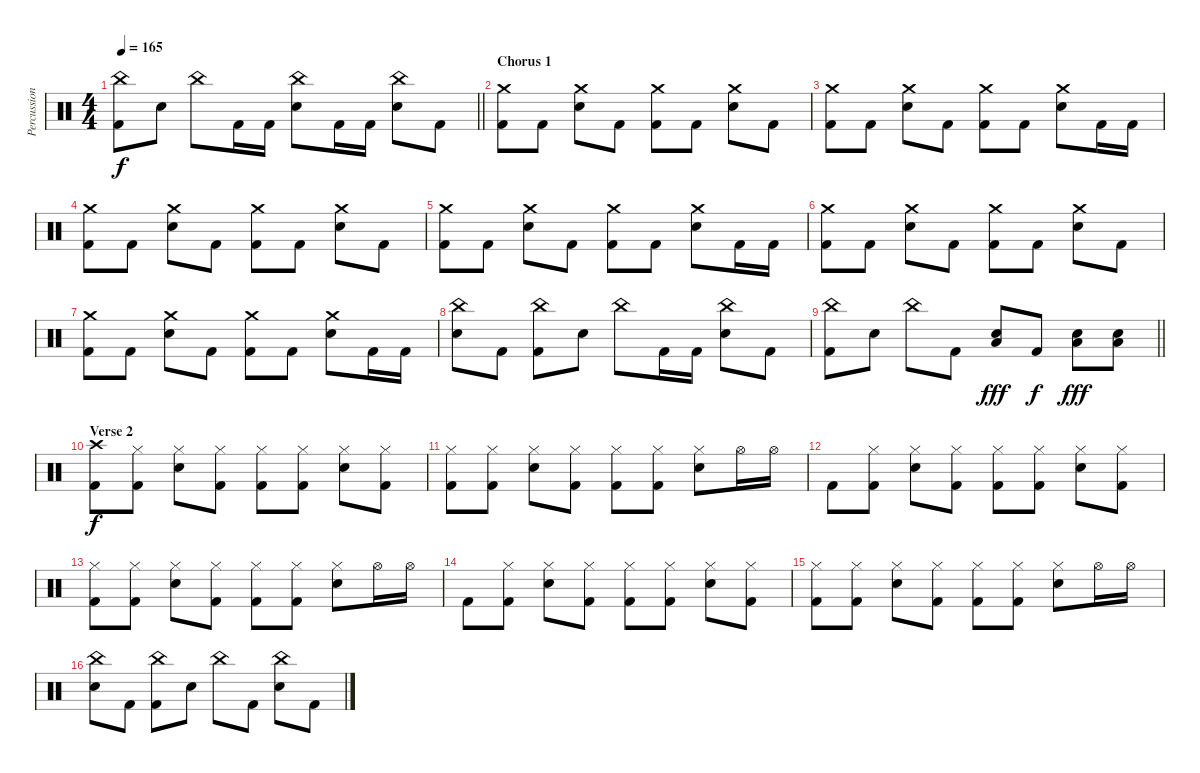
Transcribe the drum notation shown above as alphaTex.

\track ("Percussions" "Percussion") {instrument percussion}
\staff
\articulation defaults
\ts (4 4)
\tempo 165
\clef neutral
\barLineRight lightlight
\ks c
("China (hit)" "Kick (hit) 2").8{dy f} "Electric Snare (hit)".8 "China (hit)".8 "Kick (hit) 2".16 "Kick (hit) 2".16 ("China (hit)" "Electric Snare (hit)").8 "Kick (hit) 2".16 "Kick (hit) 2".16 ("China (hit)" "Electric Snare (hit)").8 "Kick (hit) 2".8 |
\section ("" "Chorus 1")
("Crash medium (hit)" "Kick (hit) 2").8 "Kick (hit) 2".8 ("Crash medium (hit)" "Electric Snare (hit)").8 "Kick (hit) 2".8 ("Crash medium (hit)" "Kick (hit) 2").8 "Kick (hit) 2".8 ("Crash medium (hit)" "Electric Snare (hit)").8 "Kick (hit) 2".8 |
("Crash medium (hit)" "Kick (hit) 2").8 "Kick (hit) 2".8 ("Crash medium (hit)" "Electric Snare (hit)").8 "Kick (hit) 2".8 ("Crash medium (hit)" "Kick (hit) 2").8 "Kick (hit) 2".8 ("Crash medium (hit)" "Electric Snare (hit)").8 "Kick (hit) 2".16 "Kick (hit) 2".16 |
("Crash medium (hit)" "Kick (hit) 2").8 "Kick (hit) 2".8 ("Crash medium (hit)" "Electric Snare (hit)").8 "Kick (hit) 2".8 ("Crash medium (hit)" "Kick (hit) 2").8 "Kick (hit) 2".8 ("Crash medium (hit)" "Electric Snare (hit)").8 "Kick (hit) 2".8 |
("Crash medium (hit)" "Kick (hit) 2").8 "Kick (hit) 2".8 ("Crash medium (hit)" "Electric Snare (hit)").8 "Kick (hit) 2".8 ("Crash medium (hit)" "Kick (hit) 2").8 "Kick (hit) 2".8 ("Crash medium (hit)" "Electric Snare (hit)").8 "Kick (hit) 2".16 "Kick (hit) 2".16 |
("Crash medium (hit)" "Kick (hit) 2").8 "Kick (hit) 2".8 ("Crash medium (hit)" "Electric Snare (hit)").8 "Kick (hit) 2".8 ("Crash medium (hit)" "Kick (hit) 2").8 "Kick (hit) 2".8 ("Crash medium (hit)" "Electric Snare (hit)").8 "Kick (hit) 2".8 |
("Crash medium (hit)" "Kick (hit) 2").8 "Kick (hit) 2".8 ("Crash medium (hit)" "Electric Snare (hit)").8 "Kick (hit) 2".8 ("Crash medium (hit)" "Kick (hit) 2").8 "Kick (hit) 2".8 ("Crash medium (hit)" "Electric Snare (hit)").8 "Kick (hit) 2".16 "Kick (hit) 2".16 |
("China (hit)" "Electric Snare (hit)").8 "Kick (hit) 2".8 ("China (hit)" "Kick (hit) 2").8 "Electric Snare (hit)".8 "China (hit)".8 "Kick (hit) 2".16 "Kick (hit) 2".16 ("China (hit)" "Electric Snare (hit)").8 "Kick (hit) 2".8 |
\barLineRight lightlight
("China (hit)" "Kick (hit) 2").8 "Electric Snare (hit)".8 "China (hit)".8 "Kick (hit) 2".8 ("Electric Snare (hit)" "Low Floor Tom (hit)").8{dy fff} "Kick (hit) 2".8{dy f} ("Electric Snare (hit)" "Low Floor Tom (hit)").8{dy fff} ("Electric Snare (hit)" "Low Floor Tom (hit)").8 |
\section ("" "Verse 2")
("Crash high (hit)" "Kick (hit) 2").8{dy f} ("Hi-Hat (closed)" "Kick (hit) 2").8 ("Hi-Hat (closed)" "Electric Snare (hit)").8 ("Hi-Hat (closed)" "Kick (hit) 2").8 ("Hi-Hat (closed)" "Kick (hit) 2").8 ("Hi-Hat (closed)" "Kick (hit) 2").8 ("Hi-Hat (closed)" "Electric Snare (hit)").8 ("Hi-Hat (closed)" "Kick (hit) 2").8 |
("Hi-Hat (closed)" "Kick (hit) 2").8 ("Hi-Hat (closed)" "Kick (hit) 2").8 ("Hi-Hat (closed)" "Electric Snare (hit)").8 ("Hi-Hat (closed)" "Kick (hit) 2").8 ("Hi-Hat (closed)" "Kick (hit) 2").8 ("Hi-Hat (closed)" "Kick (hit) 2").8 ("Hi-Hat (closed)" "Electric Snare (hit)").8 "Hi-Hat (open)".16 "Hi-Hat (open)".16 |
"Kick (hit) 2".8 ("Hi-Hat (closed)" "Kick (hit) 2").8 ("Hi-Hat (closed)" "Electric Snare (hit)").8 ("Hi-Hat (closed)" "Kick (hit) 2").8 ("Hi-Hat (closed)" "Kick (hit) 2").8 ("Hi-Hat (closed)" "Kick (hit) 2").8 ("Hi-Hat (closed)" "Electric Snare (hit)").8 ("Hi-Hat (closed)" "Kick (hit) 2").8 |
("Hi-Hat (closed)" "Kick (hit) 2").8 ("Hi-Hat (closed)" "Kick (hit) 2").8 ("Hi-Hat (closed)" "Electric Snare (hit)").8 ("Hi-Hat (closed)" "Kick (hit) 2").8 ("Hi-Hat (closed)" "Kick (hit) 2").8 ("Hi-Hat (closed)" "Kick (hit) 2").8 ("Hi-Hat (closed)" "Electric Snare (hit)").8 "Hi-Hat (open)".16 "Hi-Hat (open)".16 |
"Kick (hit) 2".8 ("Hi-Hat (closed)" "Kick (hit) 2").8 ("Hi-Hat (closed)" "Electric Snare (hit)").8 ("Hi-Hat (closed)" "Kick (hit) 2").8 ("Hi-Hat (closed)" "Kick (hit) 2").8 ("Hi-Hat (closed)" "Kick (hit) 2").8 ("Hi-Hat (closed)" "Electric Snare (hit)").8 ("Hi-Hat (closed)" "Kick (hit) 2").8 |
("Hi-Hat (closed)" "Kick (hit) 2").8 ("Hi-Hat (closed)" "Kick (hit) 2").8 ("Hi-Hat (closed)" "Electric Snare (hit)").8 ("Hi-Hat (closed)" "Kick (hit) 2").8 ("Hi-Hat (closed)" "Kick (hit) 2").8 ("Hi-Hat (closed)" "Kick (hit) 2").8 ("Hi-Hat (closed)" "Electric Snare (hit)").8 "Hi-Hat (open)".16 "Hi-Hat (open)".16 |
("China (hit)" "Electric Snare (hit)").8 "Kick (hit) 2".8 ("China (hit)" "Kick (hit) 2").8 "Electric Snare (hit)".8 "China (hit)".8 "Kick (hit) 2".8 ("China (hit)" "Electric Snare (hit)").8 "Kick (hit) 2".8
